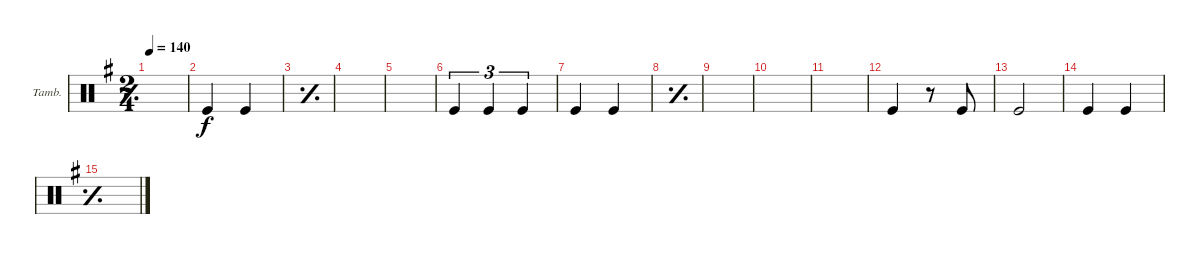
\defaultSystemsLayout 4
\bracketExtendMode groupsimilarinstruments
\firstSystemTrackNameOrientation horizontal
\otherSystemsTrackNameOrientation horizontal
\track ("Tambourine" "Tamb.") {instrument percussion}
\staff {score}
\articulation defaults
\ts (2 4)
\tempo 140
\clef neutral
\simile simple
\ks g
|
\simile none "Kick (hit)".4 "Kick (hit)".4
|
\simile simple
|
|
|
\simile none "Kick (hit)".4{tu (3 2)} "Kick (hit)".4{tu (3 2)} "Kick (hit)".4{tu (3 2)}
|
"Kick (hit)".4 "Kick (hit)".4 |
\simile simple
|
|
|
|
\simile none "Kick (hit)".4
r.8 "Kick (hit)".8 |
"Kick (hit)".2 |
"Kick (hit)".4 "Kick (hit)".4 |
\simile simple
